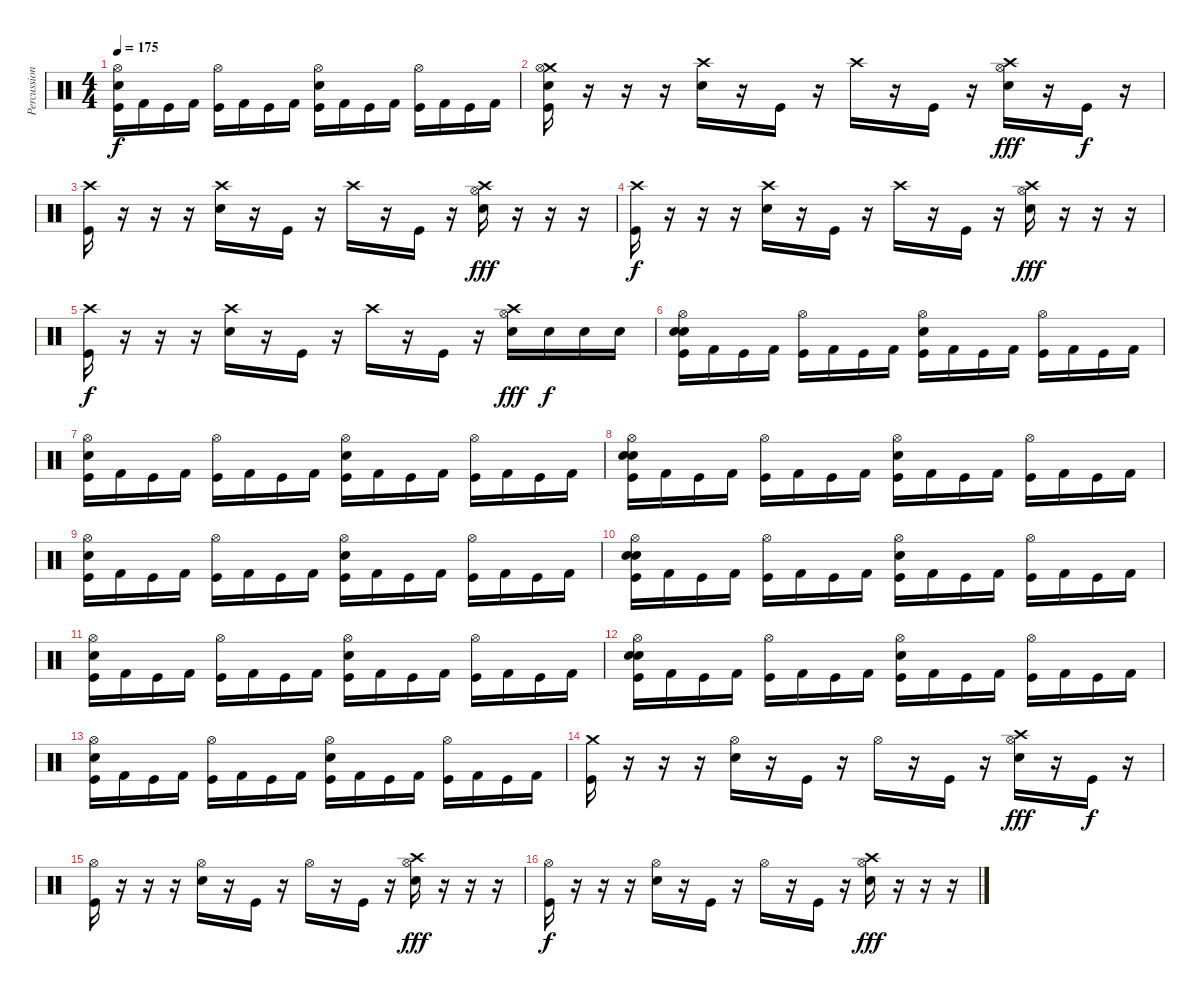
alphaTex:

\track ("Percussions" "Percussion") {instrument percussion}
\staff {score}
\articulation defaults
\ts (4 4)
\tempo 175
\clef neutral
\ks c
("Hi-Hat (open)" "Electric Snare (hit)" "Kick (hit)").16{dy f} "Kick (hit) 2".16 "Kick (hit)".16 "Kick (hit) 2".16 ("Hi-Hat (open)" "Kick (hit)").16 "Kick (hit) 2".16 "Kick (hit)".16 "Kick (hit) 2".16 ("Hi-Hat (open)" "Electric Snare (hit)" "Kick (hit)").16 "Kick (hit) 2".16 "Kick (hit)".16 "Kick (hit) 2".16 ("Hi-Hat (open)" "Kick (hit)").16 "Kick (hit) 2".16 "Kick (hit)".16 "Kick (hit) 2".16 |
("Crash medium (hit)" "Snare (hit) 2" "Hi-Hat (open)" "Kick (hit)").16 r.16 r.16 r.16 ("Crash high (hit)" "Electric Snare (hit)").16 r.16 "Kick (hit)".16 r.16 "Crash high (hit)".16 r.16 "Kick (hit)".16 r.16 ("Crash high (hit)" "Hi-Hat (open)" "Electric Snare (hit)").16{dy fff} r.16 "Kick (hit)".16{dy f} r.16 |
("Crash high (hit)" "Kick (hit)").16 r.16 r.16 r.16 ("Crash high (hit)" "Electric Snare (hit)").16 r.16 "Kick (hit)".16 r.16 "Crash high (hit)".16 r.16 "Kick (hit)".16 r.16 ("Crash high (hit)" "Hi-Hat (open)" "Electric Snare (hit)").16{dy fff} r.16 r.16 r.16 |
("Crash high (hit)" "Kick (hit)").16{dy f} r.16 r.16 r.16 ("Crash high (hit)" "Electric Snare (hit)").16 r.16 "Kick (hit)".16 r.16 "Crash high (hit)".16 r.16 "Kick (hit)".16 r.16 ("Crash high (hit)" "Hi-Hat (open)" "Electric Snare (hit)").16{dy fff} r.16 r.16 r.16 |
("Crash high (hit)" "Kick (hit)").16{dy f} r.16 r.16 r.16 ("Crash high (hit)" "Electric Snare (hit)").16 r.16 "Kick (hit)".16 r.16 "Crash high (hit)".16 r.16 "Kick (hit)".16 r.16 ("Crash high (hit)" "Hi-Hat (open)" "Electric Snare (hit)").16{dy fff} "Electric Snare (hit)".16{dy f} "Electric Snare (hit)".16 "Electric Snare (hit)".16 |
("Hi-Hat (open)" "Electric Snare (hit)" "Snare (hit) 2" "Kick (hit)").16 "Kick (hit) 2".16 "Kick (hit)".16 "Kick (hit) 2".16 ("Hi-Hat (open)" "Kick (hit)").16 "Kick (hit) 2".16 "Kick (hit)".16 "Kick (hit) 2".16 ("Hi-Hat (open)" "Electric Snare (hit)" "Kick (hit)").16 "Kick (hit) 2".16 "Kick (hit)".16 "Kick (hit) 2".16 ("Hi-Hat (open)" "Kick (hit)").16 "Kick (hit) 2".16 "Kick (hit)".16 "Kick (hit) 2".16 |
("Hi-Hat (open)" "Electric Snare (hit)" "Kick (hit)").16 "Kick (hit) 2".16 "Kick (hit)".16 "Kick (hit) 2".16 ("Hi-Hat (open)" "Kick (hit)").16 "Kick (hit) 2".16 "Kick (hit)".16 "Kick (hit) 2".16 ("Hi-Hat (open)" "Electric Snare (hit)" "Kick (hit)").16 "Kick (hit) 2".16 "Kick (hit)".16 "Kick (hit) 2".16 ("Hi-Hat (open)" "Kick (hit)").16 "Kick (hit) 2".16 "Kick (hit)".16 "Kick (hit) 2".16 |
("Hi-Hat (open)" "Electric Snare (hit)" "Snare (hit) 2" "Kick (hit)").16 "Kick (hit) 2".16 "Kick (hit)".16 "Kick (hit) 2".16 ("Hi-Hat (open)" "Kick (hit)").16 "Kick (hit) 2".16 "Kick (hit)".16 "Kick (hit) 2".16 ("Hi-Hat (open)" "Electric Snare (hit)" "Kick (hit)").16 "Kick (hit) 2".16 "Kick (hit)".16 "Kick (hit) 2".16 ("Hi-Hat (open)" "Kick (hit)").16 "Kick (hit) 2".16 "Kick (hit)".16 "Kick (hit) 2".16 |
("Hi-Hat (open)" "Electric Snare (hit)" "Kick (hit)").16 "Kick (hit) 2".16 "Kick (hit)".16 "Kick (hit) 2".16 ("Hi-Hat (open)" "Kick (hit)").16 "Kick (hit) 2".16 "Kick (hit)".16 "Kick (hit) 2".16 ("Hi-Hat (open)" "Electric Snare (hit)" "Kick (hit)").16 "Kick (hit) 2".16 "Kick (hit)".16 "Kick (hit) 2".16 ("Hi-Hat (open)" "Kick (hit)").16 "Kick (hit) 2".16 "Kick (hit)".16 "Kick (hit) 2".16 |
("Hi-Hat (open)" "Electric Snare (hit)" "Snare (hit) 2" "Kick (hit)").16 "Kick (hit) 2".16 "Kick (hit)".16 "Kick (hit) 2".16 ("Hi-Hat (open)" "Kick (hit)").16 "Kick (hit) 2".16 "Kick (hit)".16 "Kick (hit) 2".16 ("Hi-Hat (open)" "Electric Snare (hit)" "Kick (hit)").16 "Kick (hit) 2".16 "Kick (hit)".16 "Kick (hit) 2".16 ("Hi-Hat (open)" "Kick (hit)").16 "Kick (hit) 2".16 "Kick (hit)".16 "Kick (hit) 2".16 |
("Hi-Hat (open)" "Electric Snare (hit)" "Kick (hit)").16 "Kick (hit) 2".16 "Kick (hit)".16 "Kick (hit) 2".16 ("Hi-Hat (open)" "Kick (hit)").16 "Kick (hit) 2".16 "Kick (hit)".16 "Kick (hit) 2".16 ("Hi-Hat (open)" "Electric Snare (hit)" "Kick (hit)").16 "Kick (hit) 2".16 "Kick (hit)".16 "Kick (hit) 2".16 ("Hi-Hat (open)" "Kick (hit)").16 "Kick (hit) 2".16 "Kick (hit)".16 "Kick (hit) 2".16 |
("Hi-Hat (open)" "Electric Snare (hit)" "Snare (hit) 2" "Kick (hit)").16 "Kick (hit) 2".16 "Kick (hit)".16 "Kick (hit) 2".16 ("Hi-Hat (open)" "Kick (hit)").16 "Kick (hit) 2".16 "Kick (hit)".16 "Kick (hit) 2".16 ("Hi-Hat (open)" "Electric Snare (hit)" "Kick (hit)").16 "Kick (hit) 2".16 "Kick (hit)".16 "Kick (hit) 2".16 ("Hi-Hat (open)" "Kick (hit)").16 "Kick (hit) 2".16 "Kick (hit)".16 "Kick (hit) 2".16 |
("Hi-Hat (open)" "Electric Snare (hit)" "Kick (hit)").16 "Kick (hit) 2".16 "Kick (hit)".16 "Kick (hit) 2".16 ("Hi-Hat (open)" "Kick (hit)").16 "Kick (hit) 2".16 "Kick (hit)".16 "Kick (hit) 2".16 ("Hi-Hat (open)" "Electric Snare (hit)" "Kick (hit)").16 "Kick (hit) 2".16 "Kick (hit)".16 "Kick (hit) 2".16 ("Hi-Hat (open)" "Kick (hit)").16 "Kick (hit) 2".16 "Kick (hit)".16 "Kick (hit) 2".16 |
("Crash medium (hit)" "Kick (hit)").16 r.16 r.16 r.16 ("Hi-Hat (open)" "Electric Snare (hit)").16 r.16 "Kick (hit)".16 r.16 "Hi-Hat (open)".16 r.16 "Kick (hit)".16 r.16 ("Hi-Hat (open)" "Crash high (hit)" "Electric Snare (hit)").16{dy fff} r.16 "Kick (hit)".16{dy f} r.16 |
("Hi-Hat (open)" "Kick (hit)").16 r.16 r.16 r.16 ("Hi-Hat (open)" "Electric Snare (hit)").16 r.16 "Kick (hit)".16 r.16 "Hi-Hat (open)".16 r.16 "Kick (hit)".16 r.16 ("Hi-Hat (open)" "Crash high (hit)" "Electric Snare (hit)").16{dy fff} r.16 r.16 r.16 |
("Hi-Hat (open)" "Kick (hit)").16{dy f} r.16 r.16 r.16 ("Hi-Hat (open)" "Electric Snare (hit)").16 r.16 "Kick (hit)".16 r.16 "Hi-Hat (open)".16 r.16 "Kick (hit)".16 r.16 ("Hi-Hat (open)" "Crash high (hit)" "Electric Snare (hit)").16{dy fff} r.16 r.16 r.16
